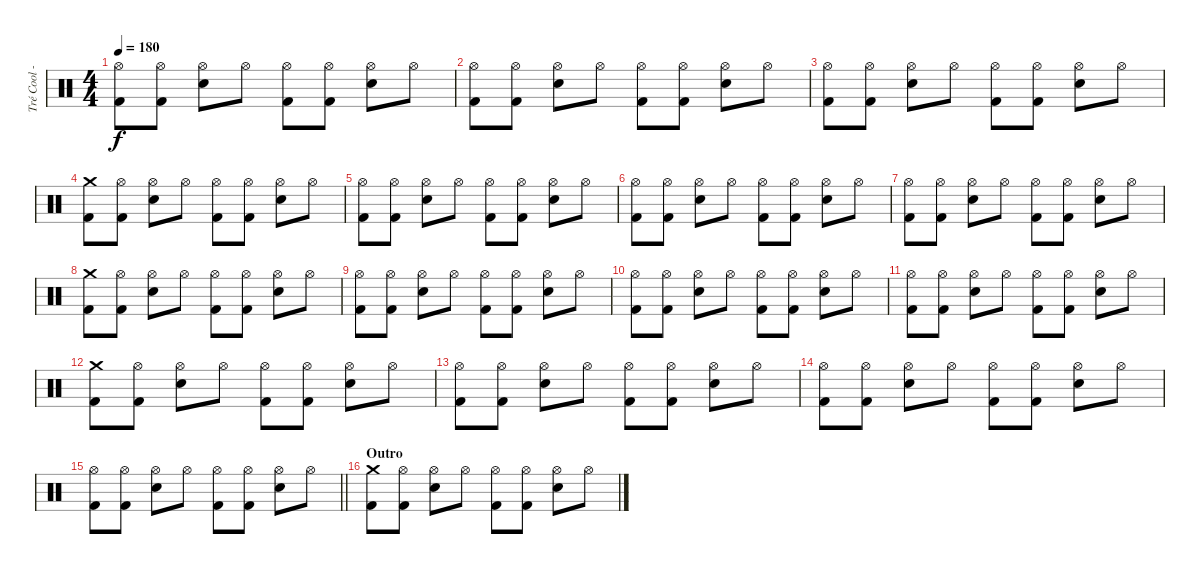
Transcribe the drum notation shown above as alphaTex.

\track ("Tré Cool - Drums" "Tré Cool -") {instrument percussion}
\staff {score}
\articulation defaults
\ts (4 4)
\tempo 180
\clef neutral
\ks c
("Hi-Hat (open)" "Kick (hit) 2").8{dy f} ("Hi-Hat (open)" "Kick (hit) 2").8 ("Hi-Hat (open)" "Electric Snare (hit)").8 "Hi-Hat (open)".8 ("Hi-Hat (open)" "Kick (hit) 2").8 ("Hi-Hat (open)" "Kick (hit) 2").8 ("Hi-Hat (open)" "Electric Snare (hit)").8 "Hi-Hat (open)".8 |
("Hi-Hat (open)" "Kick (hit) 2").8 ("Hi-Hat (open)" "Kick (hit) 2").8 ("Hi-Hat (open)" "Electric Snare (hit)").8 "Hi-Hat (open)".8 ("Hi-Hat (open)" "Kick (hit) 2").8 ("Hi-Hat (open)" "Kick (hit) 2").8 ("Hi-Hat (open)" "Electric Snare (hit)").8 "Hi-Hat (open)".8 |
("Hi-Hat (open)" "Kick (hit) 2").8 ("Hi-Hat (open)" "Kick (hit) 2").8 ("Hi-Hat (open)" "Electric Snare (hit)").8 "Hi-Hat (open)".8 ("Hi-Hat (open)" "Kick (hit) 2").8 ("Hi-Hat (open)" "Kick (hit) 2").8 ("Hi-Hat (open)" "Electric Snare (hit)").8 "Hi-Hat (open)".8 |
("Crash medium (hit)" "Kick (hit) 2").8 ("Hi-Hat (open)" "Kick (hit) 2").8 ("Hi-Hat (open)" "Electric Snare (hit)").8 "Hi-Hat (open)".8 ("Hi-Hat (open)" "Kick (hit) 2").8 ("Hi-Hat (open)" "Kick (hit) 2").8 ("Hi-Hat (open)" "Electric Snare (hit)").8 "Hi-Hat (open)".8 |
("Hi-Hat (open)" "Kick (hit) 2").8 ("Hi-Hat (open)" "Kick (hit) 2").8 ("Hi-Hat (open)" "Electric Snare (hit)").8 "Hi-Hat (open)".8 ("Hi-Hat (open)" "Kick (hit) 2").8 ("Hi-Hat (open)" "Kick (hit) 2").8 ("Hi-Hat (open)" "Electric Snare (hit)").8 "Hi-Hat (open)".8 |
("Hi-Hat (open)" "Kick (hit) 2").8 ("Hi-Hat (open)" "Kick (hit) 2").8 ("Hi-Hat (open)" "Electric Snare (hit)").8 "Hi-Hat (open)".8 ("Hi-Hat (open)" "Kick (hit) 2").8 ("Hi-Hat (open)" "Kick (hit) 2").8 ("Hi-Hat (open)" "Electric Snare (hit)").8 "Hi-Hat (open)".8 |
("Hi-Hat (open)" "Kick (hit) 2").8 ("Hi-Hat (open)" "Kick (hit) 2").8 ("Hi-Hat (open)" "Electric Snare (hit)").8 "Hi-Hat (open)".8 ("Hi-Hat (open)" "Kick (hit) 2").8 ("Hi-Hat (open)" "Kick (hit) 2").8 ("Hi-Hat (open)" "Electric Snare (hit)").8 "Hi-Hat (open)".8 |
("Crash medium (hit)" "Kick (hit) 2").8 ("Hi-Hat (open)" "Kick (hit) 2").8 ("Hi-Hat (open)" "Electric Snare (hit)").8 "Hi-Hat (open)".8 ("Hi-Hat (open)" "Kick (hit) 2").8 ("Hi-Hat (open)" "Kick (hit) 2").8 ("Hi-Hat (open)" "Electric Snare (hit)").8 "Hi-Hat (open)".8 |
("Hi-Hat (open)" "Kick (hit) 2").8 ("Hi-Hat (open)" "Kick (hit) 2").8 ("Hi-Hat (open)" "Electric Snare (hit)").8 "Hi-Hat (open)".8 ("Hi-Hat (open)" "Kick (hit) 2").8 ("Hi-Hat (open)" "Kick (hit) 2").8 ("Hi-Hat (open)" "Electric Snare (hit)").8 "Hi-Hat (open)".8 |
("Hi-Hat (open)" "Kick (hit) 2").8 ("Hi-Hat (open)" "Kick (hit) 2").8 ("Hi-Hat (open)" "Electric Snare (hit)").8 "Hi-Hat (open)".8 ("Hi-Hat (open)" "Kick (hit) 2").8 ("Hi-Hat (open)" "Kick (hit) 2").8 ("Hi-Hat (open)" "Electric Snare (hit)").8 "Hi-Hat (open)".8 |
("Hi-Hat (open)" "Kick (hit) 2").8 ("Hi-Hat (open)" "Kick (hit) 2").8 ("Hi-Hat (open)" "Electric Snare (hit)").8 "Hi-Hat (open)".8 ("Hi-Hat (open)" "Kick (hit) 2").8 ("Hi-Hat (open)" "Kick (hit) 2").8 ("Hi-Hat (open)" "Electric Snare (hit)").8 "Hi-Hat (open)".8 |
("Crash medium (hit)" "Kick (hit) 2").8 ("Hi-Hat (open)" "Kick (hit) 2").8 ("Hi-Hat (open)" "Electric Snare (hit)").8 "Hi-Hat (open)".8 ("Hi-Hat (open)" "Kick (hit) 2").8 ("Hi-Hat (open)" "Kick (hit) 2").8 ("Hi-Hat (open)" "Electric Snare (hit)").8 "Hi-Hat (open)".8 |
("Hi-Hat (open)" "Kick (hit) 2").8 ("Hi-Hat (open)" "Kick (hit) 2").8 ("Hi-Hat (open)" "Electric Snare (hit)").8 "Hi-Hat (open)".8 ("Hi-Hat (open)" "Kick (hit) 2").8 ("Hi-Hat (open)" "Kick (hit) 2").8 ("Hi-Hat (open)" "Electric Snare (hit)").8 "Hi-Hat (open)".8 |
("Hi-Hat (open)" "Kick (hit) 2").8 ("Hi-Hat (open)" "Kick (hit) 2").8 ("Hi-Hat (open)" "Electric Snare (hit)").8 "Hi-Hat (open)".8 ("Hi-Hat (open)" "Kick (hit) 2").8 ("Hi-Hat (open)" "Kick (hit) 2").8 ("Hi-Hat (open)" "Electric Snare (hit)").8 "Hi-Hat (open)".8 |
\barLineRight lightlight
("Hi-Hat (open)" "Kick (hit) 2").8 ("Hi-Hat (open)" "Kick (hit) 2").8 ("Hi-Hat (open)" "Electric Snare (hit)").8 "Hi-Hat (open)".8 ("Hi-Hat (open)" "Kick (hit) 2").8 ("Hi-Hat (open)" "Kick (hit) 2").8 ("Hi-Hat (open)" "Electric Snare (hit)").8 "Hi-Hat (open)".8 |
\section ("" "Outro")
("Crash medium (hit)" "Kick (hit) 2").8 ("Hi-Hat (open)" "Kick (hit) 2").8 ("Hi-Hat (open)" "Electric Snare (hit)").8 "Hi-Hat (open)".8 ("Hi-Hat (open)" "Kick (hit) 2").8 ("Hi-Hat (open)" "Kick (hit) 2").8 ("Hi-Hat (open)" "Electric Snare (hit)").8 "Hi-Hat (open)".8
